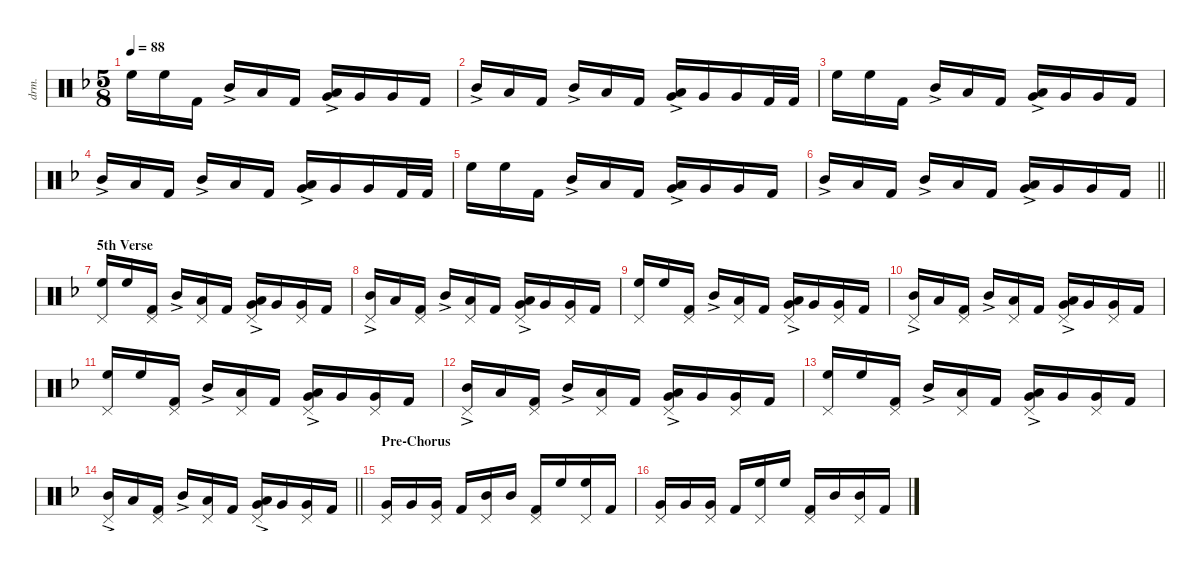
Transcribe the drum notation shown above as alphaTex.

\defaultSystemsLayout 4
\hideDynamics
\bracketExtendMode nobrackets
\otherSystemsTrackNameOrientation horizontal
\track ("Drums" "drm.") {instrument percussion}
\staff {score}
\articulation defaults
\ts (5 8)
\tempo 88
\clef neutral
\ks dminor "High Floor Tom (hit)"{acc forcenatural}.16{dy f beam Down} "High Floor Tom (hit)"{acc forcenatural}.16{beam Down beam merge} "Kick (hit) 2"{acc forcenatural}.16{beam Down beam split} "Mid Tom (hit)"{ac acc forcenatural}.16{beam Up beam merge} "Low Tom (hit)"{acc forcenatural}.16{beam Up} "Kick (hit) 2"{acc forcenatural}.16{beam Up beam split}
("Low Tom (hit)"{ac acc forcenatural} "Very Low Tom (hit)"{acc forcenatural}).16{beam Up} "Very Low Tom (hit)"{acc forcenatural}.16{beam Up beam merge} "Very Low Tom (hit)"{acc forcenatural}.16{beam Up} "Kick (hit) 2"{acc forcenatural}.16{beam Up} |
"Mid Tom (hit)"{ac acc forcenatural}.16{beam Up} "Low Tom (hit)"{acc forcenatural}.16{beam Up beam merge} "Kick (hit) 2"{acc forcenatural}.16{beam Up beam split} "Mid Tom (hit)"{ac acc forcenatural}.16{beam Up beam merge} "Low Tom (hit)"{acc forcenatural}.16{beam Up} "Kick (hit) 2"{acc forcenatural}.16{beam Up beam split} ("Low Tom (hit)"{ac acc forcenatural} "Very Low Tom (hit)"{acc forcenatural}).16{beam Up} "Very Low Tom (hit)"{acc forcenatural}.16{beam Up beam merge} "Very Low Tom (hit)"{acc forcenatural}.16{beam Up} "Kick (hit) 2"{acc forcenatural}.32{beam Up} "Kick (hit) 2"{acc forcenatural}.32{beam Up} |
"High Floor Tom (hit)"{acc forcenatural}.16{beam Down} "High Floor Tom (hit)"{acc forcenatural}.16{beam Down beam merge} "Kick (hit) 2"{acc forcenatural}.16{beam Down beam split} "Mid Tom (hit)"{ac acc forcenatural}.16{beam Up beam merge} "Low Tom (hit)"{acc forcenatural}.16{beam Up} "Kick (hit) 2"{acc forcenatural}.16{beam Up beam split} ("Low Tom (hit)"{ac acc forcenatural} "Very Low Tom (hit)"{acc forcenatural}).16{beam Up} "Very Low Tom (hit)"{acc forcenatural}.16{beam Up beam merge} "Very Low Tom (hit)"{acc forcenatural}.16{beam Up} "Kick (hit) 2"{acc forcenatural}.16{beam Up} |
"Mid Tom (hit)"{ac acc forcenatural}.16{beam Up} "Low Tom (hit)"{acc forcenatural}.16{beam Up beam merge} "Kick (hit) 2"{acc forcenatural}.16{beam Up beam split} "Mid Tom (hit)"{ac acc forcenatural}.16{beam Up beam merge} "Low Tom (hit)"{acc forcenatural}.16{beam Up} "Kick (hit) 2"{acc forcenatural}.16{beam Up beam split} ("Low Tom (hit)"{ac acc forcenatural} "Very Low Tom (hit)"{acc forcenatural}).16{beam Up} "Very Low Tom (hit)"{acc forcenatural}.16{beam Up beam merge} "Very Low Tom (hit)"{acc forcenatural}.16{beam Up} "Kick (hit) 2"{acc forcenatural}.32{beam Up} "Kick (hit) 2"{acc forcenatural}.32{beam Up} |
"High Floor Tom (hit)"{acc forcenatural}.16{beam Down} "High Floor Tom (hit)"{acc forcenatural}.16{beam Down beam merge} "Kick (hit) 2"{acc forcenatural}.16{beam Down beam split} "Mid Tom (hit)"{ac acc forcenatural}.16{beam Up beam merge} "Low Tom (hit)"{acc forcenatural}.16{beam Up} "Kick (hit) 2"{acc forcenatural}.16{beam Up beam split} ("Low Tom (hit)"{ac acc forcenatural} "Very Low Tom (hit)"{acc forcenatural}).16{beam Up} "Very Low Tom (hit)"{acc forcenatural}.16{beam Up beam merge} "Very Low Tom (hit)"{acc forcenatural}.16{beam Up} "Kick (hit) 2"{acc forcenatural}.16{beam Up} |
\barLineRight lightlight "Mid Tom (hit)"{ac acc forcenatural}.16{beam Up} "Low Tom (hit)"{acc forcenatural}.16{beam Up beam merge} "Kick (hit) 2"{acc forcenatural}.16{beam Up beam split} "Mid Tom (hit)"{ac acc forcenatural}.16{beam Up beam merge} "Low Tom (hit)"{acc forcenatural}.16{beam Up} "Kick (hit) 2"{acc forcenatural}.16{beam Up beam split}
("Low Tom (hit)"{ac acc forcenatural} "Very Low Tom (hit)"{acc forcenatural}).16{beam Up} "Very Low Tom (hit)"{acc forcenatural}.16{beam Up beam merge} "Very Low Tom (hit)"{acc forcenatural}.16{beam Up} "Kick (hit) 2"{acc forcenatural}.16{beam Up} |
\section ("" "5th Verse")
("Pedal Hi-Hat (hit)"{acc forcenatural} "High Floor Tom (hit)"{acc forcenatural}).16{beam Up} "High Floor Tom (hit)"{acc forcenatural}.16{beam Up beam merge} ("Pedal Hi-Hat (hit)"{acc forcenatural} "Kick (hit) 2"{acc forcenatural}).16{beam Up beam split} "Mid Tom (hit)"{ac acc forcenatural}.16{beam Up beam merge} ("Pedal Hi-Hat (hit)"{acc forcenatural} "Low Tom (hit)"{acc forcenatural}).16{beam Up} "Kick (hit) 2"{acc forcenatural}.16{beam Up beam split} ("Pedal Hi-Hat (hit)"{acc forcenatural} "Low Tom (hit)"{ac acc forcenatural} "Very Low Tom (hit)"{acc forcenatural}).16{beam Up} "Very Low Tom (hit)"{acc forcenatural}.16{beam Up beam merge} ("Pedal Hi-Hat (hit)"{acc forcenatural} "Very Low Tom (hit)"{acc forcenatural}).16{beam Up} "Kick (hit) 2"{acc forcenatural}.16{beam Up} |
("Pedal Hi-Hat (hit)"{acc forcenatural} "Mid Tom (hit)"{ac acc forcenatural}).16{beam Up} "Low Tom (hit)"{acc forcenatural}.16{beam Up beam merge} ("Pedal Hi-Hat (hit)"{acc forcenatural} "Kick (hit) 2"{acc forcenatural}).16{beam Up beam split} "Mid Tom (hit)"{ac acc forcenatural}.16{beam Up beam merge} ("Pedal Hi-Hat (hit)"{acc forcenatural} "Low Tom (hit)"{acc forcenatural}).16{beam Up} "Kick (hit) 2"{acc forcenatural}.16{beam Up beam split} ("Pedal Hi-Hat (hit)"{acc forcenatural} "Low Tom (hit)"{ac acc forcenatural} "Very Low Tom (hit)"{acc forcenatural}).16{beam Up} "Very Low Tom (hit)"{acc forcenatural}.16{beam Up beam merge} ("Pedal Hi-Hat (hit)"{acc forcenatural} "Very Low Tom (hit)"{acc forcenatural}).16{beam Up} "Kick (hit) 2"{acc forcenatural}.16{beam Up} |
("Pedal Hi-Hat (hit)"{acc forcenatural} "High Floor Tom (hit)"{acc forcenatural}).16{beam Up} "High Floor Tom (hit)"{acc forcenatural}.16{beam Up beam merge} ("Pedal Hi-Hat (hit)"{acc forcenatural} "Kick (hit) 2"{acc forcenatural}).16{beam Up beam split} "Mid Tom (hit)"{ac acc forcenatural}.16{beam Up beam merge} ("Pedal Hi-Hat (hit)"{acc forcenatural} "Low Tom (hit)"{acc forcenatural}).16{beam Up} "Kick (hit) 2"{acc forcenatural}.16{beam Up beam split} ("Pedal Hi-Hat (hit)"{acc forcenatural} "Low Tom (hit)"{ac acc forcenatural} "Very Low Tom (hit)"{acc forcenatural}).16{beam Up} "Very Low Tom (hit)"{acc forcenatural}.16{beam Up beam merge} ("Pedal Hi-Hat (hit)"{acc forcenatural} "Very Low Tom (hit)"{acc forcenatural}).16{beam Up} "Kick (hit) 2"{acc forcenatural}.16{beam Up} |
("Pedal Hi-Hat (hit)"{acc forcenatural} "Mid Tom (hit)"{ac acc forcenatural}).16{beam Up} "Low Tom (hit)"{acc forcenatural}.16{beam Up beam merge} ("Pedal Hi-Hat (hit)"{acc forcenatural} "Kick (hit) 2"{acc forcenatural}).16{beam Up beam split} "Mid Tom (hit)"{ac acc forcenatural}.16{beam Up beam merge} ("Pedal Hi-Hat (hit)"{acc forcenatural} "Low Tom (hit)"{acc forcenatural}).16{beam Up} "Kick (hit) 2"{acc forcenatural}.16{beam Up beam split} ("Pedal Hi-Hat (hit)"{acc forcenatural} "Low Tom (hit)"{ac acc forcenatural} "Very Low Tom (hit)"{acc forcenatural}).16{beam Up} "Very Low Tom (hit)"{acc forcenatural}.16{beam Up beam merge} ("Pedal Hi-Hat (hit)"{acc forcenatural} "Very Low Tom (hit)"{acc forcenatural}).16{beam Up} "Kick (hit) 2"{acc forcenatural}.16{beam Up} |
("Pedal Hi-Hat (hit)"{acc forcenatural} "High Floor Tom (hit)"{acc forcenatural}).16{beam Up} "High Floor Tom (hit)"{acc forcenatural}.16{beam Up beam merge} ("Pedal Hi-Hat (hit)"{acc forcenatural} "Kick (hit) 2"{acc forcenatural}).16{beam Up beam split} "Mid Tom (hit)"{ac acc forcenatural}.16{beam Up beam merge} ("Pedal Hi-Hat (hit)"{acc forcenatural} "Low Tom (hit)"{acc forcenatural}).16{beam Up} "Kick (hit) 2"{acc forcenatural}.16{beam Up beam split} ("Pedal Hi-Hat (hit)"{acc forcenatural} "Low Tom (hit)"{ac acc forcenatural} "Very Low Tom (hit)"{acc forcenatural}).16{beam Up} "Very Low Tom (hit)"{acc forcenatural}.16{beam Up beam merge} ("Pedal Hi-Hat (hit)"{acc forcenatural} "Very Low Tom (hit)"{acc forcenatural}).16{beam Up} "Kick (hit) 2"{acc forcenatural}.16{beam Up} |
("Pedal Hi-Hat (hit)"{acc forcenatural} "Mid Tom (hit)"{ac acc forcenatural}).16{beam Up} "Low Tom (hit)"{acc forcenatural}.16{beam Up beam merge} ("Pedal Hi-Hat (hit)"{acc forcenatural} "Kick (hit) 2"{acc forcenatural}).16{beam Up beam split} "Mid Tom (hit)"{ac acc forcenatural}.16{beam Up beam merge} ("Pedal Hi-Hat (hit)"{acc forcenatural} "Low Tom (hit)"{acc forcenatural}).16{beam Up} "Kick (hit) 2"{acc forcenatural}.16{beam Up beam split} ("Pedal Hi-Hat (hit)"{acc forcenatural} "Low Tom (hit)"{ac acc forcenatural} "Very Low Tom (hit)"{acc forcenatural}).16{beam Up} "Very Low Tom (hit)"{acc forcenatural}.16{beam Up beam merge} ("Pedal Hi-Hat (hit)"{acc forcenatural} "Very Low Tom (hit)"{acc forcenatural}).16{beam Up} "Kick (hit) 2"{acc forcenatural}.16{beam Up} |
("Pedal Hi-Hat (hit)"{acc forcenatural} "High Floor Tom (hit)"{acc forcenatural}).16{beam Up} "High Floor Tom (hit)"{acc forcenatural}.16{beam Up beam merge} ("Pedal Hi-Hat (hit)"{acc forcenatural} "Kick (hit) 2"{acc forcenatural}).16{beam Up beam split} "Mid Tom (hit)"{ac acc forcenatural}.16{beam Up beam merge} ("Pedal Hi-Hat (hit)"{acc forcenatural} "Low Tom (hit)"{acc forcenatural}).16{beam Up} "Kick (hit) 2"{acc forcenatural}.16{beam Up beam split} ("Pedal Hi-Hat (hit)"{acc forcenatural} "Low Tom (hit)"{ac acc forcenatural} "Very Low Tom (hit)"{acc forcenatural}).16{beam Up} "Very Low Tom (hit)"{acc forcenatural}.16{beam Up beam merge} ("Pedal Hi-Hat (hit)"{acc forcenatural} "Very Low Tom (hit)"{acc forcenatural}).16{beam Up} "Kick (hit) 2"{acc forcenatural}.16{beam Up} |
\barLineRight lightlight
("Pedal Hi-Hat (hit)"{acc forcenatural} "Mid Tom (hit)"{ac acc forcenatural}).16{beam Up} "Low Tom (hit)"{acc forcenatural}.16{beam Up beam merge} ("Pedal Hi-Hat (hit)"{acc forcenatural} "Kick (hit) 2"{acc forcenatural}).16{beam Up beam split} "Mid Tom (hit)"{ac acc forcenatural}.16{beam Up beam merge} ("Pedal Hi-Hat (hit)"{acc forcenatural} "Low Tom (hit)"{acc forcenatural}).16{beam Up} "Kick (hit) 2"{acc forcenatural}.16{beam Up beam split} ("Pedal Hi-Hat (hit)"{acc forcenatural} "Low Tom (hit)"{ac acc forcenatural} "Very Low Tom (hit)"{acc forcenatural}).16{beam Up} "Very Low Tom (hit)"{acc forcenatural}.16{beam Up beam merge} ("Pedal Hi-Hat (hit)"{acc forcenatural} "Very Low Tom (hit)"{acc forcenatural}).16{beam Up} "Kick (hit) 2"{acc forcenatural}.16{beam Up} |
\section ("" "Pre-Chorus")
("Pedal Hi-Hat (hit)"{acc forcenatural} "Very Low Tom (hit)"{acc forcenatural}).16{beam Up} "Very Low Tom (hit)"{acc forcenatural}.16{beam Up beam merge} ("Pedal Hi-Hat (hit)"{acc forcenatural} "Very Low Tom (hit)"{acc forcenatural}).16{beam Up beam split} "Kick (hit) 2"{acc forcenatural}.16{beam Up beam merge} ("Pedal Hi-Hat (hit)"{acc forcenatural} "Mid Tom (hit)"{acc forcenatural}).16{beam Up} "Mid Tom (hit)"{acc forcenatural}.16{beam Up beam split} ("Pedal Hi-Hat (hit)"{acc forcenatural} "Kick (hit) 2"{acc forcenatural}).16{beam Up} "High Floor Tom (hit)"{acc forcenatural}.16{beam Up beam merge} ("Pedal Hi-Hat (hit)"{acc forcenatural} "High Floor Tom (hit)"{acc forcenatural}).16{beam Up} "Kick (hit) 2"{acc forcenatural}.16{beam Up} |
("Pedal Hi-Hat (hit)"{acc forcenatural} "Very Low Tom (hit)"{acc forcenatural}).16{beam Up} "Very Low Tom (hit)"{acc forcenatural}.16{beam Up beam merge} ("Pedal Hi-Hat (hit)"{acc forcenatural} "Very Low Tom (hit)"{acc forcenatural}).16{beam Up beam split} "Kick (hit) 2"{acc forcenatural}.16{beam Up beam merge} ("Pedal Hi-Hat (hit)"{acc forcenatural} "High Floor Tom (hit)"{acc forcenatural}).16{beam Up} "High Floor Tom (hit)"{acc forcenatural}.16{beam Up beam split} ("Pedal Hi-Hat (hit)"{acc forcenatural} "Kick (hit) 2"{acc forcenatural}).16{beam Up beam merge} "Mid Tom (hit)"{acc forcenatural}.16{beam Up beam merge} ("Pedal Hi-Hat (hit)"{acc forcenatural} "Mid Tom (hit)"{acc forcenatural}).16{beam Up} "Kick (hit) 2"{acc forcenatural}.16{beam Up}
